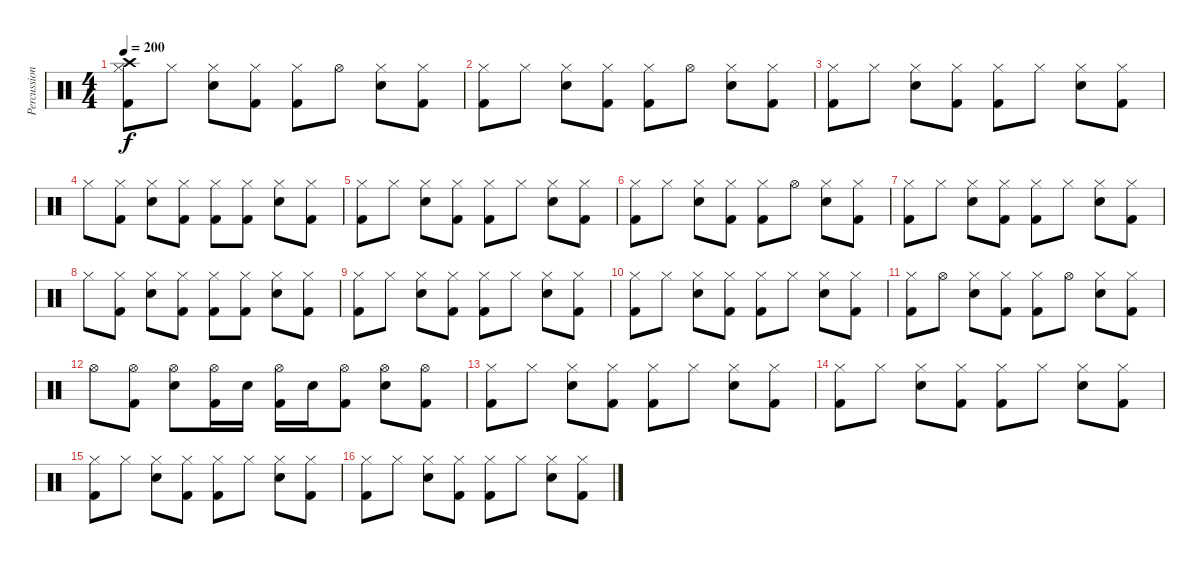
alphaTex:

\track ("Percussion" "Percussion") {instrument percussion}
\staff {score}
\articulation defaults
\ts (4 4)
\tempo 200
\clef neutral
\ks c
("Crash high (hit)" "Hi-Hat (closed)" "Kick (hit) 2").8{dy f} "Hi-Hat (closed)".8 ("Hi-Hat (closed)" "Snare (hit) 2").8 ("Hi-Hat (closed)" "Kick (hit) 2").8 ("Hi-Hat (closed)" "Kick (hit) 2").8 "Hi-Hat (open)".8 ("Hi-Hat (closed)" "Snare (hit) 2").8 ("Hi-Hat (closed)" "Kick (hit) 2").8 |
("Hi-Hat (closed)" "Kick (hit) 2").8 "Hi-Hat (closed)".8 ("Hi-Hat (closed)" "Snare (hit) 2").8 ("Hi-Hat (closed)" "Kick (hit) 2").8 ("Hi-Hat (closed)" "Kick (hit) 2").8 "Hi-Hat (open)".8 ("Hi-Hat (closed)" "Snare (hit) 2").8 ("Hi-Hat (closed)" "Kick (hit) 2").8 |
("Hi-Hat (closed)" "Kick (hit) 2").8 "Hi-Hat (closed)".8 ("Hi-Hat (closed)" "Snare (hit) 2").8 ("Hi-Hat (closed)" "Kick (hit) 2").8 ("Hi-Hat (closed)" "Kick (hit) 2").8 "Hi-Hat (closed)".8 ("Hi-Hat (closed)" "Snare (hit) 2").8 ("Hi-Hat (closed)" "Kick (hit) 2").8 |
"Hi-Hat (closed)".8 ("Hi-Hat (closed)" "Kick (hit) 2").8 ("Hi-Hat (closed)" "Snare (hit) 2").8 ("Hi-Hat (closed)" "Kick (hit) 2").8 ("Hi-Hat (closed)" "Kick (hit) 2").8 ("Hi-Hat (closed)" "Kick (hit) 2").8 ("Hi-Hat (closed)" "Snare (hit) 2").8 ("Hi-Hat (closed)" "Kick (hit) 2").8 |
("Hi-Hat (closed)" "Kick (hit) 2").8 "Hi-Hat (closed)".8 ("Hi-Hat (closed)" "Snare (hit) 2").8 ("Hi-Hat (closed)" "Kick (hit) 2").8 ("Hi-Hat (closed)" "Kick (hit) 2").8 "Hi-Hat (closed)".8 ("Hi-Hat (closed)" "Snare (hit) 2").8 ("Hi-Hat (closed)" "Kick (hit) 2").8 |
("Hi-Hat (closed)" "Kick (hit) 2").8 "Hi-Hat (closed)".8 ("Hi-Hat (closed)" "Snare (hit) 2").8 ("Hi-Hat (closed)" "Kick (hit) 2").8 ("Hi-Hat (closed)" "Kick (hit) 2").8 "Hi-Hat (open)".8 ("Hi-Hat (closed)" "Snare (hit) 2").8 ("Hi-Hat (closed)" "Kick (hit) 2").8 |
("Hi-Hat (closed)" "Kick (hit) 2").8 "Hi-Hat (closed)".8 ("Hi-Hat (closed)" "Snare (hit) 2").8 ("Hi-Hat (closed)" "Kick (hit) 2").8 ("Hi-Hat (closed)" "Kick (hit) 2").8 "Hi-Hat (closed)".8 ("Hi-Hat (closed)" "Snare (hit) 2").8 ("Hi-Hat (closed)" "Kick (hit) 2").8 |
"Hi-Hat (closed)".8 ("Hi-Hat (closed)" "Kick (hit) 2").8 ("Hi-Hat (closed)" "Snare (hit) 2").8 ("Hi-Hat (closed)" "Kick (hit) 2").8 ("Hi-Hat (closed)" "Kick (hit) 2").8 ("Hi-Hat (closed)" "Kick (hit) 2").8 ("Hi-Hat (closed)" "Snare (hit) 2").8 ("Hi-Hat (closed)" "Kick (hit) 2").8 |
("Hi-Hat (closed)" "Kick (hit) 2").8 "Hi-Hat (closed)".8 ("Hi-Hat (closed)" "Snare (hit) 2").8 ("Hi-Hat (closed)" "Kick (hit) 2").8 ("Hi-Hat (closed)" "Kick (hit) 2").8 "Hi-Hat (closed)".8 ("Hi-Hat (closed)" "Snare (hit) 2").8 ("Hi-Hat (closed)" "Kick (hit) 2").8 |
("Hi-Hat (closed)" "Kick (hit) 2").8 "Hi-Hat (closed)".8 ("Hi-Hat (closed)" "Snare (hit) 2").8 ("Hi-Hat (closed)" "Kick (hit) 2").8 ("Hi-Hat (closed)" "Kick (hit) 2").8 "Hi-Hat (closed)".8 ("Hi-Hat (closed)" "Snare (hit) 2").8 ("Hi-Hat (closed)" "Kick (hit) 2").8 |
("Hi-Hat (closed)" "Kick (hit) 2").8 "Hi-Hat (open)".8 ("Hi-Hat (closed)" "Snare (hit) 2").8 ("Hi-Hat (closed)" "Kick (hit) 2").8 ("Hi-Hat (closed)" "Kick (hit) 2").8 "Hi-Hat (open)".8 ("Hi-Hat (closed)" "Snare (hit) 2").8 ("Hi-Hat (closed)" "Kick (hit) 2").8 |
"Hi-Hat (open)".8 ("Hi-Hat (open)" "Kick (hit) 2").8 ("Hi-Hat (open)" "Snare (hit) 2").8 ("Hi-Hat (open)" "Kick (hit) 2").16 "Snare (hit) 2".16 ("Hi-Hat (open)" "Kick (hit) 2").16 "Snare (hit) 2".16 ("Hi-Hat (open)" "Kick (hit) 2").8 ("Hi-Hat (open)" "Snare (hit) 2").8 ("Hi-Hat (open)" "Kick (hit) 2").8 |
("Hi-Hat (closed)" "Kick (hit) 2").8 "Hi-Hat (closed)".8 ("Hi-Hat (closed)" "Snare (hit) 2").8 ("Hi-Hat (closed)" "Kick (hit) 2").8 ("Hi-Hat (closed)" "Kick (hit) 2").8 "Hi-Hat (closed)".8 ("Hi-Hat (closed)" "Snare (hit) 2").8 ("Hi-Hat (closed)" "Kick (hit) 2").8 |
("Hi-Hat (closed)" "Kick (hit) 2").8 "Hi-Hat (closed)".8 ("Hi-Hat (closed)" "Snare (hit) 2").8 ("Hi-Hat (closed)" "Kick (hit) 2").8 ("Hi-Hat (closed)" "Kick (hit) 2").8 "Hi-Hat (closed)".8 ("Hi-Hat (closed)" "Snare (hit) 2").8 ("Hi-Hat (closed)" "Kick (hit) 2").8 |
("Hi-Hat (closed)" "Kick (hit) 2").8 "Hi-Hat (closed)".8 ("Hi-Hat (closed)" "Snare (hit) 2").8 ("Hi-Hat (closed)" "Kick (hit) 2").8 ("Hi-Hat (closed)" "Kick (hit) 2").8 "Hi-Hat (closed)".8 ("Hi-Hat (closed)" "Snare (hit) 2").8 ("Hi-Hat (closed)" "Kick (hit) 2").8 |
("Hi-Hat (closed)" "Kick (hit) 2").8 "Hi-Hat (closed)".8 ("Hi-Hat (closed)" "Snare (hit) 2").8 ("Hi-Hat (closed)" "Kick (hit) 2").8 ("Hi-Hat (closed)" "Kick (hit) 2").8 "Hi-Hat (closed)".8 ("Hi-Hat (closed)" "Snare (hit) 2").8 ("Hi-Hat (closed)" "Kick (hit) 2").8
